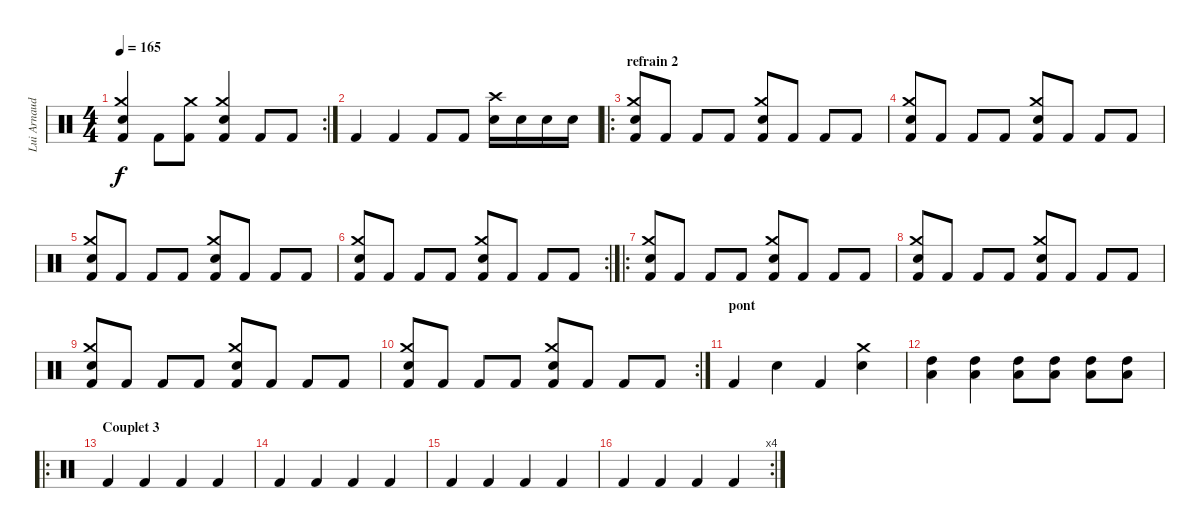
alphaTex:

\track ("Lui Arnaudin" "Lui Arnaud") {instrument percussion}
\staff {score}
\articulation defaults
\rc 2
\ts (4 4)
\tempo 165
\clef neutral
\ks c
("Kick (hit) 2" "Crash medium (hit)" "Electric Snare (hit)").4{dy f} "Kick (hit) 2".8 ("Crash medium (hit)" "Kick (hit) 2").8 ("Kick (hit) 2" "Crash medium (hit)" "Electric Snare (hit)").4 "Kick (hit) 2".8 "Kick (hit) 2".8 |
"Kick (hit) 2".4 "Kick (hit) 2".4 "Kick (hit) 2".8 "Kick (hit) 2".8 ("Crash high (hit)" "Snare (hit) 2").16 "Snare (hit) 2".16 "Snare (hit) 2".16 "Snare (hit) 2".16 |
\ro
\section ("" "refrain 2")
("Kick (hit) 2" "Crash medium (hit)" "Electric Snare (hit)").8 "Kick (hit) 2".8 "Kick (hit) 2".8 "Kick (hit) 2".8 ("Kick (hit) 2" "Crash medium (hit)" "Electric Snare (hit)").8 "Kick (hit) 2".8 "Kick (hit) 2".8 "Kick (hit) 2".8 |
("Kick (hit) 2" "Crash medium (hit)" "Electric Snare (hit)").8 "Kick (hit) 2".8 "Kick (hit) 2".8 "Kick (hit) 2".8 ("Kick (hit) 2" "Crash medium (hit)" "Electric Snare (hit)").8 "Kick (hit) 2".8 "Kick (hit) 2".8 "Kick (hit) 2".8 |
("Kick (hit) 2" "Crash medium (hit)" "Electric Snare (hit)").8 "Kick (hit) 2".8 "Kick (hit) 2".8 "Kick (hit) 2".8 ("Kick (hit) 2" "Crash medium (hit)" "Electric Snare (hit)").8 "Kick (hit) 2".8 "Kick (hit) 2".8 "Kick (hit) 2".8 |
\rc 2
("Kick (hit) 2" "Crash medium (hit)" "Electric Snare (hit)").8 "Kick (hit) 2".8 "Kick (hit) 2".8 "Kick (hit) 2".8 ("Kick (hit) 2" "Crash medium (hit)" "Electric Snare (hit)").8 "Kick (hit) 2".8 "Kick (hit) 2".8 "Kick (hit) 2".8 |
\ro
("Kick (hit) 2" "Crash medium (hit)" "Electric Snare (hit)").8 "Kick (hit) 2".8 "Kick (hit) 2".8 "Kick (hit) 2".8 ("Kick (hit) 2" "Crash medium (hit)" "Electric Snare (hit)").8 "Kick (hit) 2".8 "Kick (hit) 2".8 "Kick (hit) 2".8 |
("Kick (hit) 2" "Crash medium (hit)" "Electric Snare (hit)").8 "Kick (hit) 2".8 "Kick (hit) 2".8 "Kick (hit) 2".8 ("Kick (hit) 2" "Crash medium (hit)" "Electric Snare (hit)").8 "Kick (hit) 2".8 "Kick (hit) 2".8 "Kick (hit) 2".8 |
("Kick (hit) 2" "Crash medium (hit)" "Electric Snare (hit)").8 "Kick (hit) 2".8 "Kick (hit) 2".8 "Kick (hit) 2".8 ("Kick (hit) 2" "Crash medium (hit)" "Electric Snare (hit)").8 "Kick (hit) 2".8 "Kick (hit) 2".8 "Kick (hit) 2".8 |
\rc 2
("Kick (hit) 2" "Crash medium (hit)" "Electric Snare (hit)").8 "Kick (hit) 2".8 "Kick (hit) 2".8 "Kick (hit) 2".8 ("Kick (hit) 2" "Crash medium (hit)" "Electric Snare (hit)").8 "Kick (hit) 2".8 "Kick (hit) 2".8 "Kick (hit) 2".8 |
\section ("" "pont")
"Kick (hit) 2".4 "Electric Snare (hit)".4 "Kick (hit) 2".4 ("Crash medium (hit)" "Electric Snare (hit)").4 |
("High Tom (hit)" "Low Tom (hit)").4 ("High Tom (hit)" "Low Tom (hit)").4 ("High Tom (hit)" "Low Tom (hit)").8 ("High Tom (hit)" "Low Tom (hit)").8 ("High Tom (hit)" "Low Tom (hit)").8 ("High Tom (hit)" "Low Tom (hit)").8 |
\ro
\section ("" "Couplet 3")
"Kick (hit) 2".4 "Kick (hit) 2".4 "Kick (hit) 2".4 "Kick (hit) 2".4 |
"Kick (hit) 2".4 "Kick (hit) 2".4 "Kick (hit) 2".4 "Kick (hit) 2".4 |
"Kick (hit) 2".4 "Kick (hit) 2".4 "Kick (hit) 2".4 "Kick (hit) 2".4 |
\rc 4 "Kick (hit) 2".4 "Kick (hit) 2".4 "Kick (hit) 2".4 "Kick (hit) 2".4
